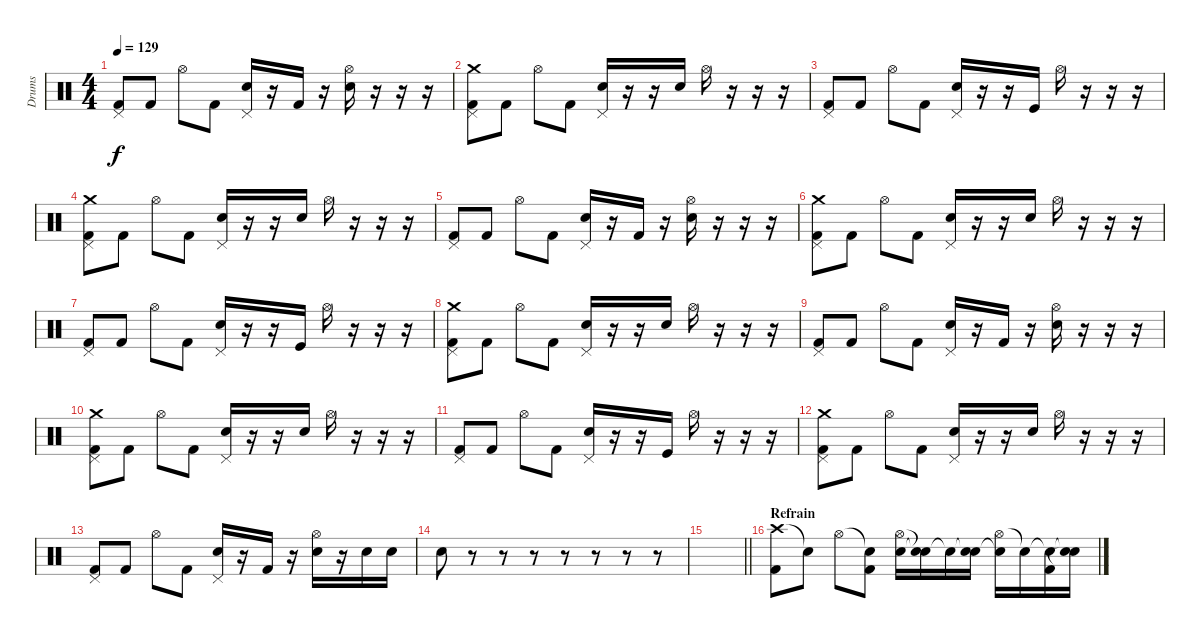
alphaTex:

\track ("Drums" "Drums") {instrument percussion}
\staff {score}
\articulation defaults
\ts (4 4)
\tempo 129
\clef neutral
\ks c
("Pedal Hi-Hat (hit)" "Kick (hit) 2").8{dy f} "Kick (hit) 2".8 "Hi-Hat (open)".8 "Kick (hit) 2".8 ("Pedal Hi-Hat (hit)" "Electric Snare (hit)").16 r.16 "Kick (hit) 2".16 r.16 ("Hi-Hat (open)" "Electric Snare (hit)").16 r.16 r.16 r.16 |
("Crash medium (hit)" "Pedal Hi-Hat (hit)" "Kick (hit) 2").8 "Kick (hit) 2".8 "Hi-Hat (open)".8 "Kick (hit) 2".8 ("Pedal Hi-Hat (hit)" "Electric Snare (hit)").16 r.16 r.16 "Electric Snare (hit)".16 "Hi-Hat (open)".16 r.16 r.16 r.16 |
("Pedal Hi-Hat (hit)" "Kick (hit) 2").8 "Kick (hit) 2".8 "Hi-Hat (open)".8 "Kick (hit) 2".8 ("Pedal Hi-Hat (hit)" "Electric Snare (hit)").16 r.16 r.16 "Kick (hit)".16 "Hi-Hat (open)".16 r.16 r.16 r.16 |
("Crash medium (hit)" "Pedal Hi-Hat (hit)" "Kick (hit) 2").8 "Kick (hit) 2".8 "Hi-Hat (open)".8 "Kick (hit) 2".8 ("Pedal Hi-Hat (hit)" "Electric Snare (hit)").16 r.16 r.16 "Electric Snare (hit)".16 "Hi-Hat (open)".16 r.16 r.16 r.16 |
("Pedal Hi-Hat (hit)" "Kick (hit) 2").8 "Kick (hit) 2".8 "Hi-Hat (open)".8 "Kick (hit) 2".8 ("Pedal Hi-Hat (hit)" "Electric Snare (hit)").16 r.16 "Kick (hit) 2".16 r.16 ("Hi-Hat (open)" "Electric Snare (hit)").16 r.16 r.16 r.16 |
("Crash medium (hit)" "Pedal Hi-Hat (hit)" "Kick (hit) 2").8 "Kick (hit) 2".8 "Hi-Hat (open)".8 "Kick (hit) 2".8 ("Pedal Hi-Hat (hit)" "Electric Snare (hit)").16 r.16 r.16 "Electric Snare (hit)".16 "Hi-Hat (open)".16 r.16 r.16 r.16 |
("Pedal Hi-Hat (hit)" "Kick (hit) 2").8 "Kick (hit) 2".8 "Hi-Hat (open)".8 "Kick (hit) 2".8 ("Pedal Hi-Hat (hit)" "Electric Snare (hit)").16 r.16 r.16 "Kick (hit)".16 "Hi-Hat (open)".16 r.16 r.16 r.16 |
("Crash medium (hit)" "Pedal Hi-Hat (hit)" "Kick (hit) 2").8 "Kick (hit) 2".8 "Hi-Hat (open)".8 "Kick (hit) 2".8 ("Pedal Hi-Hat (hit)" "Electric Snare (hit)").16 r.16 r.16 "Electric Snare (hit)".16 "Hi-Hat (open)".16 r.16 r.16 r.16 |
("Pedal Hi-Hat (hit)" "Kick (hit) 2").8 "Kick (hit) 2".8 "Hi-Hat (open)".8 "Kick (hit) 2".8 ("Pedal Hi-Hat (hit)" "Electric Snare (hit)").16 r.16 "Kick (hit) 2".16 r.16 ("Hi-Hat (open)" "Electric Snare (hit)").16 r.16 r.16 r.16 |
("Crash medium (hit)" "Pedal Hi-Hat (hit)" "Kick (hit) 2").8 "Kick (hit) 2".8 "Hi-Hat (open)".8 "Kick (hit) 2".8 ("Pedal Hi-Hat (hit)" "Electric Snare (hit)").16 r.16 r.16 "Electric Snare (hit)".16 "Hi-Hat (open)".16 r.16 r.16 r.16 |
("Pedal Hi-Hat (hit)" "Kick (hit) 2").8 "Kick (hit) 2".8 "Hi-Hat (open)".8 "Kick (hit) 2".8 ("Pedal Hi-Hat (hit)" "Electric Snare (hit)").16 r.16 r.16 "Kick (hit)".16 "Hi-Hat (open)".16 r.16 r.16 r.16 |
("Crash medium (hit)" "Pedal Hi-Hat (hit)" "Kick (hit) 2").8 "Kick (hit) 2".8 "Hi-Hat (open)".8 "Kick (hit) 2".8 ("Pedal Hi-Hat (hit)" "Electric Snare (hit)").16 r.16 r.16 "Electric Snare (hit)".16 "Hi-Hat (open)".16 r.16 r.16 r.16 |
("Pedal Hi-Hat (hit)" "Kick (hit) 2").8 "Kick (hit) 2".8 "Hi-Hat (open)".8 "Kick (hit) 2".8 ("Pedal Hi-Hat (hit)" "Electric Snare (hit)").16 r.16 "Kick (hit) 2".16 r.16 ("Hi-Hat (open)" "Electric Snare (hit)").16 r.16 "Electric Snare (hit)".16 "Electric Snare (hit)".16 |
"Electric Snare (hit)".8 r.8 r.8 r.8 r.8 r.8 r.8 r.8 |
\barLineRight lightlight
|
\section ("" "Refrain")
("Crash high (hit)" "Kick (hit) 2").8{volume 15} "Snare (hit)"{t}.8 "Hi-Hat (open)".8 ("Snare (hit)"{t} "Kick (hit) 2").8 ("Hi-Hat (open)" "Electric Snare (hit)").16 ("Snare (hit)"{t} "Snare (hit)"{t}).16 "Snare (hit)"{t}.16 ("Snare (hit)"{t} "Electric Snare (hit)").16 ("Hi-Hat (open)" "Snare (hit)"{t}).16 "Snare (hit)"{t}.16 ("Snare (hit)"{t} "Kick (hit) 2").16 ("Snare (hit)"{t} "Snare (hit)"{t}).16
